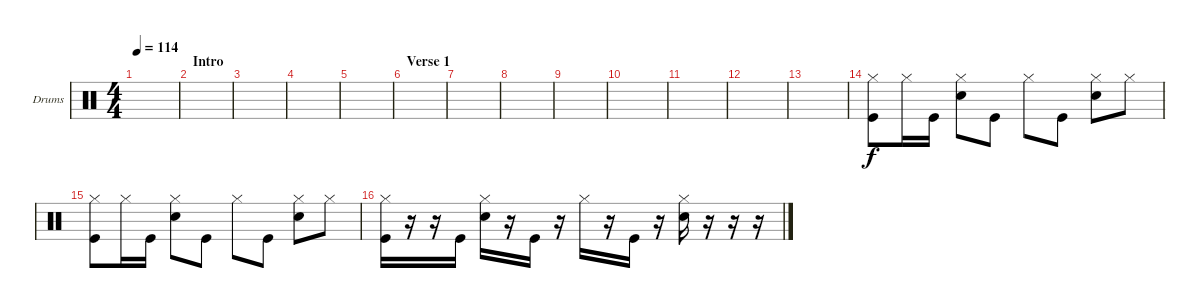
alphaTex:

\bracketExtendMode groupsimilarinstruments
\firstSystemTrackNameOrientation horizontal
\otherSystemsTrackNameOrientation horizontal
\track ("Drums" "Drums") {instrument percussion}
\staff {score}
\articulation defaults
\ts (4 4)
\tempo 114
\clef neutral
\ks c
|
\section ("" "Intro")
|
|
|
|
\section ("" "Verse 1")
|
|
|
|
|
|
|
|
("Hi-Hat (closed)" "Kick (hit)").8 "Hi-Hat (closed)".16 "Kick (hit)".16 ("Hi-Hat (closed)" "Snare (hit) 2").8 "Kick (hit)".8 "Hi-Hat (closed)".8 "Kick (hit)".8 ("Hi-Hat (closed)" "Snare (hit) 2").8 "Hi-Hat (closed)".8 |
("Hi-Hat (closed)" "Kick (hit)").8 "Hi-Hat (closed)".16 "Kick (hit)".16 ("Hi-Hat (closed)" "Snare (hit) 2").8 "Kick (hit)".8 "Hi-Hat (closed)".8 "Kick (hit)".8 ("Hi-Hat (closed)" "Snare (hit) 2").8 "Hi-Hat (closed)".8 |
("Hi-Hat (closed)" "Kick (hit)").16 r.16 r.16 "Kick (hit)".16 ("Hi-Hat (closed)" "Snare (hit) 2").16 r.16 "Kick (hit)".16 r.16 "Hi-Hat (closed)".16 r.16 "Kick (hit)".16 r.16 ("Hi-Hat (closed)" "Snare (hit) 2").16 r.16 r.16 r.16
